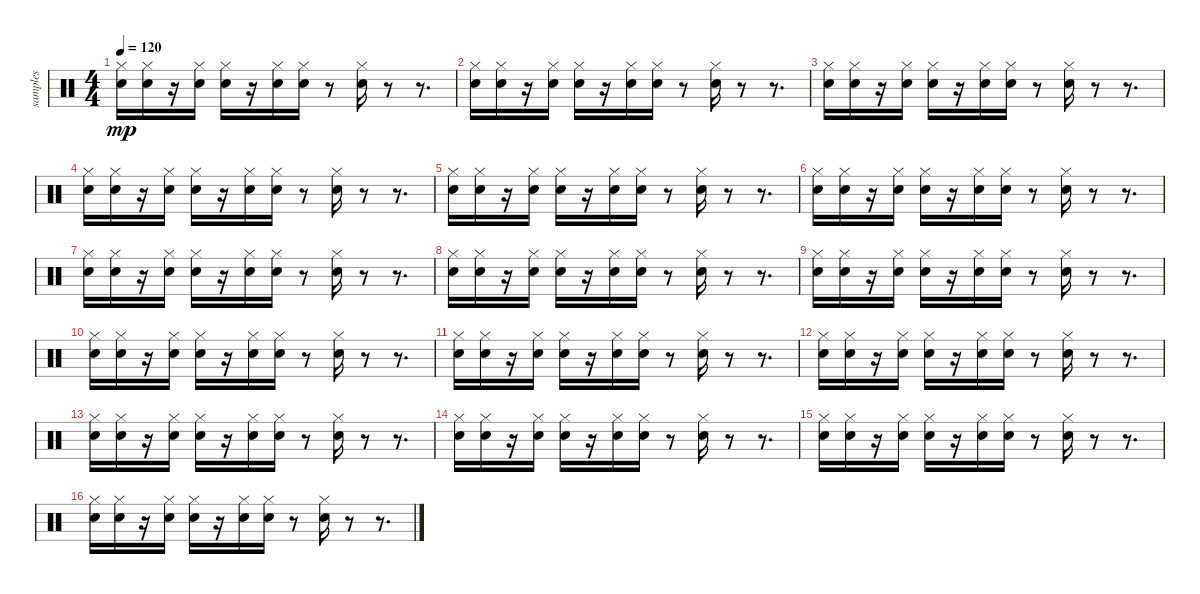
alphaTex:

\track ("samples" "samples") {instrument percussion}
\staff {score}
\articulation defaults
\ts (4 4)
\tempo 120
\clef neutral
\ks c
("Hi-Hat (closed)" "Snare (hit) 2").16{dy mp} ("Hi-Hat (closed)" "Snare (hit) 2").16 r.16 ("Hi-Hat (closed)" "Snare (hit) 2").16 ("Hi-Hat (closed)" "Snare (hit) 2").16 r.16 ("Hi-Hat (closed)" "Snare (hit) 2").16 ("Hi-Hat (closed)" "Snare (hit) 2").16 r.8 ("Hi-Hat (closed)" "Snare (hit) 2").16 r.8 r.8{d} |
("Hi-Hat (closed)" "Snare (hit) 2").16 ("Hi-Hat (closed)" "Snare (hit) 2").16 r.16 ("Hi-Hat (closed)" "Snare (hit) 2").16 ("Hi-Hat (closed)" "Snare (hit) 2").16 r.16 ("Hi-Hat (closed)" "Snare (hit) 2").16 ("Hi-Hat (closed)" "Snare (hit) 2").16 r.8 ("Hi-Hat (closed)" "Snare (hit) 2").16 r.8 r.8{d} |
("Hi-Hat (closed)" "Snare (hit) 2").16 ("Hi-Hat (closed)" "Snare (hit) 2").16 r.16 ("Hi-Hat (closed)" "Snare (hit) 2").16 ("Hi-Hat (closed)" "Snare (hit) 2").16 r.16 ("Hi-Hat (closed)" "Snare (hit) 2").16 ("Hi-Hat (closed)" "Snare (hit) 2").16 r.8 ("Hi-Hat (closed)" "Snare (hit) 2").16 r.8 r.8{d} |
("Hi-Hat (closed)" "Snare (hit) 2").16{volume 10} ("Hi-Hat (closed)" "Snare (hit) 2").16 r.16 ("Hi-Hat (closed)" "Snare (hit) 2").16 ("Hi-Hat (closed)" "Snare (hit) 2").16 r.16 ("Hi-Hat (closed)" "Snare (hit) 2").16 ("Hi-Hat (closed)" "Snare (hit) 2").16 r.8 ("Hi-Hat (closed)" "Snare (hit) 2").16 r.8 r.8{d} |
("Hi-Hat (closed)" "Snare (hit) 2").16 ("Hi-Hat (closed)" "Snare (hit) 2").16 r.16 ("Hi-Hat (closed)" "Snare (hit) 2").16 ("Hi-Hat (closed)" "Snare (hit) 2").16 r.16 ("Hi-Hat (closed)" "Snare (hit) 2").16 ("Hi-Hat (closed)" "Snare (hit) 2").16 r.8 ("Hi-Hat (closed)" "Snare (hit) 2").16 r.8 r.8{d} |
("Hi-Hat (closed)" "Snare (hit) 2").16 ("Hi-Hat (closed)" "Snare (hit) 2").16 r.16 ("Hi-Hat (closed)" "Snare (hit) 2").16 ("Hi-Hat (closed)" "Snare (hit) 2").16 r.16 ("Hi-Hat (closed)" "Snare (hit) 2").16 ("Hi-Hat (closed)" "Snare (hit) 2").16 r.8 ("Hi-Hat (closed)" "Snare (hit) 2").16 r.8 r.8{d} |
("Hi-Hat (closed)" "Snare (hit) 2").16 ("Hi-Hat (closed)" "Snare (hit) 2").16 r.16 ("Hi-Hat (closed)" "Snare (hit) 2").16 ("Hi-Hat (closed)" "Snare (hit) 2").16 r.16 ("Hi-Hat (closed)" "Snare (hit) 2").16 ("Hi-Hat (closed)" "Snare (hit) 2").16 r.8 ("Hi-Hat (closed)" "Snare (hit) 2").16 r.8 r.8{d} |
("Hi-Hat (closed)" "Snare (hit) 2").16{volume 10} ("Hi-Hat (closed)" "Snare (hit) 2").16 r.16 ("Hi-Hat (closed)" "Snare (hit) 2").16 ("Hi-Hat (closed)" "Snare (hit) 2").16 r.16 ("Hi-Hat (closed)" "Snare (hit) 2").16 ("Hi-Hat (closed)" "Snare (hit) 2").16 r.8 ("Hi-Hat (closed)" "Snare (hit) 2").16 r.8 r.8{d} |
("Hi-Hat (closed)" "Snare (hit) 2").16 ("Hi-Hat (closed)" "Snare (hit) 2").16 r.16 ("Hi-Hat (closed)" "Snare (hit) 2").16 ("Hi-Hat (closed)" "Snare (hit) 2").16 r.16 ("Hi-Hat (closed)" "Snare (hit) 2").16 ("Hi-Hat (closed)" "Snare (hit) 2").16 r.8 ("Hi-Hat (closed)" "Snare (hit) 2").16 r.8 r.8{d} |
("Hi-Hat (closed)" "Snare (hit) 2").16 ("Hi-Hat (closed)" "Snare (hit) 2").16 r.16 ("Hi-Hat (closed)" "Snare (hit) 2").16 ("Hi-Hat (closed)" "Snare (hit) 2").16 r.16 ("Hi-Hat (closed)" "Snare (hit) 2").16 ("Hi-Hat (closed)" "Snare (hit) 2").16 r.8 ("Hi-Hat (closed)" "Snare (hit) 2").16 r.8 r.8{d} |
("Hi-Hat (closed)" "Snare (hit) 2").16 ("Hi-Hat (closed)" "Snare (hit) 2").16 r.16 ("Hi-Hat (closed)" "Snare (hit) 2").16 ("Hi-Hat (closed)" "Snare (hit) 2").16 r.16 ("Hi-Hat (closed)" "Snare (hit) 2").16 ("Hi-Hat (closed)" "Snare (hit) 2").16 r.8 ("Hi-Hat (closed)" "Snare (hit) 2").16 r.8 r.8{d} |
("Hi-Hat (closed)" "Snare (hit) 2").16 ("Hi-Hat (closed)" "Snare (hit) 2").16 r.16 ("Hi-Hat (closed)" "Snare (hit) 2").16 ("Hi-Hat (closed)" "Snare (hit) 2").16 r.16 ("Hi-Hat (closed)" "Snare (hit) 2").16 ("Hi-Hat (closed)" "Snare (hit) 2").16 r.8 ("Hi-Hat (closed)" "Snare (hit) 2").16 r.8 r.8{d} |
("Hi-Hat (closed)" "Snare (hit) 2").16 ("Hi-Hat (closed)" "Snare (hit) 2").16 r.16 ("Hi-Hat (closed)" "Snare (hit) 2").16 ("Hi-Hat (closed)" "Snare (hit) 2").16 r.16 ("Hi-Hat (closed)" "Snare (hit) 2").16 ("Hi-Hat (closed)" "Snare (hit) 2").16 r.8 ("Hi-Hat (closed)" "Snare (hit) 2").16 r.8 r.8{d} |
("Hi-Hat (closed)" "Snare (hit) 2").16 ("Hi-Hat (closed)" "Snare (hit) 2").16 r.16 ("Hi-Hat (closed)" "Snare (hit) 2").16 ("Hi-Hat (closed)" "Snare (hit) 2").16 r.16 ("Hi-Hat (closed)" "Snare (hit) 2").16 ("Hi-Hat (closed)" "Snare (hit) 2").16 r.8 ("Hi-Hat (closed)" "Snare (hit) 2").16 r.8 r.8{d} |
("Hi-Hat (closed)" "Snare (hit) 2").16 ("Hi-Hat (closed)" "Snare (hit) 2").16 r.16 ("Hi-Hat (closed)" "Snare (hit) 2").16 ("Hi-Hat (closed)" "Snare (hit) 2").16 r.16 ("Hi-Hat (closed)" "Snare (hit) 2").16 ("Hi-Hat (closed)" "Snare (hit) 2").16 r.8 ("Hi-Hat (closed)" "Snare (hit) 2").16 r.8 r.8{d} |
("Hi-Hat (closed)" "Snare (hit) 2").16{volume 10} ("Hi-Hat (closed)" "Snare (hit) 2").16 r.16 ("Hi-Hat (closed)" "Snare (hit) 2").16 ("Hi-Hat (closed)" "Snare (hit) 2").16 r.16 ("Hi-Hat (closed)" "Snare (hit) 2").16 ("Hi-Hat (closed)" "Snare (hit) 2").16 r.8 ("Hi-Hat (closed)" "Snare (hit) 2").16 r.8 r.8{d}
